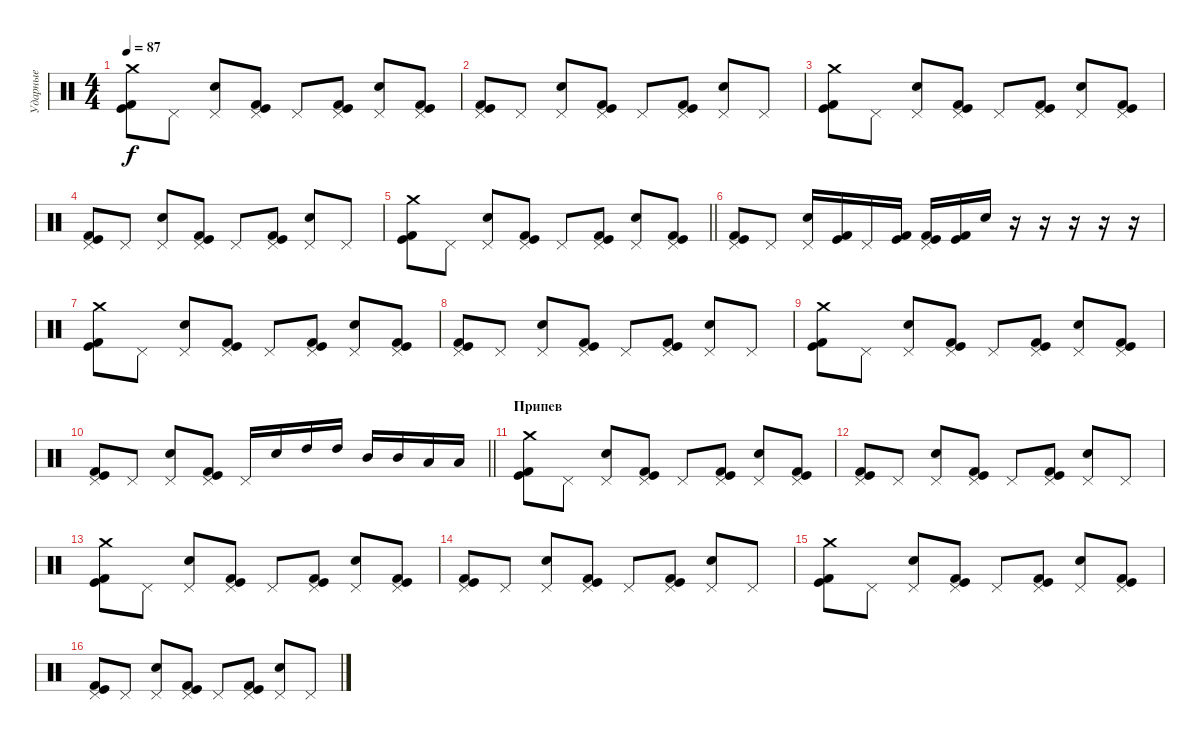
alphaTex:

\track ("Ударные" "Ударные") {instrument percussion}
\staff {score}
\articulation defaults
\ts (4 4)
\tempo 87
\clef neutral
\ks c
("Crash medium (hit)" "Kick (hit)" "Kick (hit) 2").8{dy f} "Pedal Hi-Hat (hit)".8 ("Pedal Hi-Hat (hit)" "Electric Snare (hit)").8 ("Pedal Hi-Hat (hit)" "Kick (hit)" "Kick (hit) 2").8 "Pedal Hi-Hat (hit)".8 ("Pedal Hi-Hat (hit)" "Kick (hit)" "Kick (hit) 2").8 ("Pedal Hi-Hat (hit)" "Electric Snare (hit)").8 ("Pedal Hi-Hat (hit)" "Kick (hit)" "Kick (hit) 2").8 |
("Pedal Hi-Hat (hit)" "Kick (hit)" "Kick (hit) 2").8 "Pedal Hi-Hat (hit)".8 ("Pedal Hi-Hat (hit)" "Electric Snare (hit)").8 ("Pedal Hi-Hat (hit)" "Kick (hit)" "Kick (hit) 2").8 "Pedal Hi-Hat (hit)".8 ("Pedal Hi-Hat (hit)" "Kick (hit)" "Kick (hit) 2").8 ("Pedal Hi-Hat (hit)" "Electric Snare (hit)").8 "Pedal Hi-Hat (hit)".8 |
("Crash medium (hit)" "Kick (hit)" "Kick (hit) 2").8 "Pedal Hi-Hat (hit)".8 ("Pedal Hi-Hat (hit)" "Electric Snare (hit)").8 ("Pedal Hi-Hat (hit)" "Kick (hit)" "Kick (hit) 2").8 "Pedal Hi-Hat (hit)".8 ("Pedal Hi-Hat (hit)" "Kick (hit)" "Kick (hit) 2").8 ("Pedal Hi-Hat (hit)" "Electric Snare (hit)").8 ("Pedal Hi-Hat (hit)" "Kick (hit)" "Kick (hit) 2").8 |
("Pedal Hi-Hat (hit)" "Kick (hit)" "Kick (hit) 2").8 "Pedal Hi-Hat (hit)".8 ("Pedal Hi-Hat (hit)" "Electric Snare (hit)").8 ("Pedal Hi-Hat (hit)" "Kick (hit)" "Kick (hit) 2").8 "Pedal Hi-Hat (hit)".8 ("Pedal Hi-Hat (hit)" "Kick (hit)" "Kick (hit) 2").8 ("Pedal Hi-Hat (hit)" "Electric Snare (hit)").8 "Pedal Hi-Hat (hit)".8 |
\barLineRight lightlight
("Crash medium (hit)" "Kick (hit)" "Kick (hit) 2").8 "Pedal Hi-Hat (hit)".8 ("Pedal Hi-Hat (hit)" "Electric Snare (hit)").8 ("Pedal Hi-Hat (hit)" "Kick (hit)" "Kick (hit) 2").8 "Pedal Hi-Hat (hit)".8 ("Pedal Hi-Hat (hit)" "Kick (hit)" "Kick (hit) 2").8 ("Pedal Hi-Hat (hit)" "Electric Snare (hit)").8 ("Pedal Hi-Hat (hit)" "Kick (hit)" "Kick (hit) 2").8 |
("Pedal Hi-Hat (hit)" "Kick (hit)" "Kick (hit) 2").8 "Pedal Hi-Hat (hit)".8 ("Pedal Hi-Hat (hit)" "Electric Snare (hit)").16 ("Kick (hit)" "Kick (hit) 2").16 "Pedal Hi-Hat (hit)".16 ("Kick (hit)" "Kick (hit) 2").16 ("Pedal Hi-Hat (hit)" "Kick (hit)" "Kick (hit) 2").16 ("Kick (hit)" "Kick (hit) 2").16 "Electric Snare (hit)".16 r.16 r.16 r.16 r.16 r.16 |
("Crash medium (hit)" "Kick (hit)" "Kick (hit) 2").8 "Pedal Hi-Hat (hit)".8 ("Pedal Hi-Hat (hit)" "Electric Snare (hit)").8 ("Pedal Hi-Hat (hit)" "Kick (hit)" "Kick (hit) 2").8 "Pedal Hi-Hat (hit)".8 ("Pedal Hi-Hat (hit)" "Kick (hit)" "Kick (hit) 2").8 ("Pedal Hi-Hat (hit)" "Electric Snare (hit)").8 ("Pedal Hi-Hat (hit)" "Kick (hit)" "Kick (hit) 2").8 |
("Pedal Hi-Hat (hit)" "Kick (hit)" "Kick (hit) 2").8 "Pedal Hi-Hat (hit)".8 ("Pedal Hi-Hat (hit)" "Electric Snare (hit)").8 ("Pedal Hi-Hat (hit)" "Kick (hit)" "Kick (hit) 2").8 "Pedal Hi-Hat (hit)".8 ("Pedal Hi-Hat (hit)" "Kick (hit)" "Kick (hit) 2").8 ("Pedal Hi-Hat (hit)" "Electric Snare (hit)").8 "Pedal Hi-Hat (hit)".8 |
("Crash medium (hit)" "Kick (hit)" "Kick (hit) 2").8 "Pedal Hi-Hat (hit)".8 ("Pedal Hi-Hat (hit)" "Electric Snare (hit)").8 ("Pedal Hi-Hat (hit)" "Kick (hit)" "Kick (hit) 2").8 "Pedal Hi-Hat (hit)".8 ("Pedal Hi-Hat (hit)" "Kick (hit)" "Kick (hit) 2").8 ("Pedal Hi-Hat (hit)" "Electric Snare (hit)").8 ("Pedal Hi-Hat (hit)" "Kick (hit)" "Kick (hit) 2").8 |
\barLineRight lightlight
("Pedal Hi-Hat (hit)" "Kick (hit)" "Kick (hit) 2").8 "Pedal Hi-Hat (hit)".8 ("Pedal Hi-Hat (hit)" "Electric Snare (hit)").8 ("Pedal Hi-Hat (hit)" "Kick (hit)" "Kick (hit) 2").8 "Pedal Hi-Hat (hit)".16 "Electric Snare (hit)".16 "High Tom (hit)".16 "High Tom (hit)".16 "Mid Tom (hit)".16 "Mid Tom (hit)".16 "Low Tom (hit)".16 "Low Tom (hit)".16 |
\section ("" "Припев")
("Crash medium (hit)" "Kick (hit)" "Kick (hit) 2").8 "Pedal Hi-Hat (hit)".8 ("Pedal Hi-Hat (hit)" "Electric Snare (hit)").8 ("Pedal Hi-Hat (hit)" "Kick (hit)" "Kick (hit) 2").8 "Pedal Hi-Hat (hit)".8 ("Pedal Hi-Hat (hit)" "Kick (hit)" "Kick (hit) 2").8 ("Pedal Hi-Hat (hit)" "Electric Snare (hit)").8 ("Pedal Hi-Hat (hit)" "Kick (hit)" "Kick (hit) 2").8 |
("Pedal Hi-Hat (hit)" "Kick (hit)" "Kick (hit) 2").8 "Pedal Hi-Hat (hit)".8 ("Pedal Hi-Hat (hit)" "Electric Snare (hit)").8 ("Pedal Hi-Hat (hit)" "Kick (hit)" "Kick (hit) 2").8 "Pedal Hi-Hat (hit)".8 ("Pedal Hi-Hat (hit)" "Kick (hit)" "Kick (hit) 2").8 ("Pedal Hi-Hat (hit)" "Electric Snare (hit)").8 "Pedal Hi-Hat (hit)".8 |
("Crash medium (hit)" "Kick (hit)" "Kick (hit) 2").8 "Pedal Hi-Hat (hit)".8 ("Pedal Hi-Hat (hit)" "Electric Snare (hit)").8 ("Pedal Hi-Hat (hit)" "Kick (hit)" "Kick (hit) 2").8 "Pedal Hi-Hat (hit)".8 ("Pedal Hi-Hat (hit)" "Kick (hit)" "Kick (hit) 2").8 ("Pedal Hi-Hat (hit)" "Electric Snare (hit)").8 ("Pedal Hi-Hat (hit)" "Kick (hit)" "Kick (hit) 2").8 |
("Pedal Hi-Hat (hit)" "Kick (hit)" "Kick (hit) 2").8 "Pedal Hi-Hat (hit)".8 ("Pedal Hi-Hat (hit)" "Electric Snare (hit)").8 ("Pedal Hi-Hat (hit)" "Kick (hit)" "Kick (hit) 2").8 "Pedal Hi-Hat (hit)".8 ("Pedal Hi-Hat (hit)" "Kick (hit)" "Kick (hit) 2").8 ("Pedal Hi-Hat (hit)" "Electric Snare (hit)").8 "Pedal Hi-Hat (hit)".8 |
("Crash medium (hit)" "Kick (hit)" "Kick (hit) 2").8 "Pedal Hi-Hat (hit)".8 ("Pedal Hi-Hat (hit)" "Electric Snare (hit)").8 ("Pedal Hi-Hat (hit)" "Kick (hit)" "Kick (hit) 2").8 "Pedal Hi-Hat (hit)".8 ("Pedal Hi-Hat (hit)" "Kick (hit)" "Kick (hit) 2").8 ("Pedal Hi-Hat (hit)" "Electric Snare (hit)").8 ("Pedal Hi-Hat (hit)" "Kick (hit)" "Kick (hit) 2").8 |
("Pedal Hi-Hat (hit)" "Kick (hit)" "Kick (hit) 2").8 "Pedal Hi-Hat (hit)".8 ("Pedal Hi-Hat (hit)" "Electric Snare (hit)").8 ("Pedal Hi-Hat (hit)" "Kick (hit)" "Kick (hit) 2").8 "Pedal Hi-Hat (hit)".8 ("Pedal Hi-Hat (hit)" "Kick (hit)" "Kick (hit) 2").8 ("Pedal Hi-Hat (hit)" "Electric Snare (hit)").8 "Pedal Hi-Hat (hit)".8
